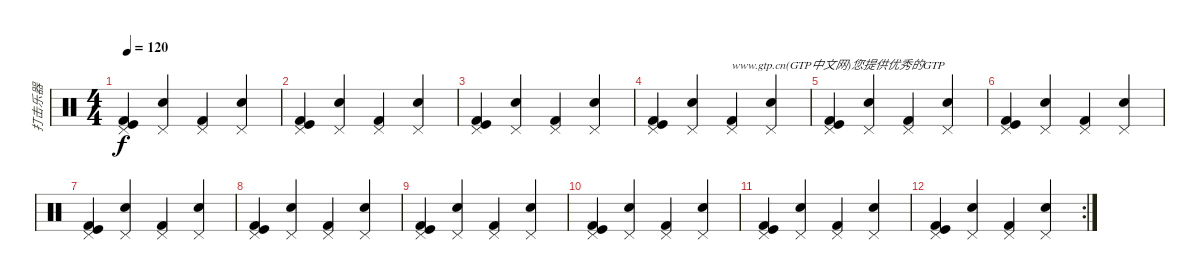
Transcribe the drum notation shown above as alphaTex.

\track ("打击乐器" "打击乐器") {instrument percussion}
\staff {score}
\articulation defaults
\ts (4 4)
\tempo 120
\clef neutral
\ks c
("Kick (hit) 2" "Kick (hit)" "Pedal Hi-Hat (hit)").4{dy f} ("Pedal Hi-Hat (hit)" "Electric Snare (hit)").4 ("Kick (hit) 2" "Pedal Hi-Hat (hit)").4 ("Pedal Hi-Hat (hit)" "Electric Snare (hit)").4 |
("Kick (hit) 2" "Kick (hit)" "Pedal Hi-Hat (hit)").4 ("Pedal Hi-Hat (hit)" "Electric Snare (hit)").4 ("Kick (hit) 2" "Pedal Hi-Hat (hit)").4 ("Pedal Hi-Hat (hit)" "Electric Snare (hit)").4 |
("Kick (hit) 2" "Kick (hit)" "Pedal Hi-Hat (hit)").4 ("Pedal Hi-Hat (hit)" "Electric Snare (hit)").4 ("Kick (hit) 2" "Pedal Hi-Hat (hit)").4 ("Pedal Hi-Hat (hit)" "Electric Snare (hit)").4 |
("Kick (hit) 2" "Kick (hit)" "Pedal Hi-Hat (hit)").4 ("Pedal Hi-Hat (hit)" "Electric Snare (hit)").4 ("Kick (hit) 2" "Pedal Hi-Hat (hit)").4{txt "www.gtp.cn(GTP中文网)您提供优秀的GTP"} ("Pedal Hi-Hat (hit)" "Electric Snare (hit)").4 |
("Kick (hit) 2" "Kick (hit)" "Pedal Hi-Hat (hit)").4 ("Pedal Hi-Hat (hit)" "Electric Snare (hit)").4 ("Kick (hit) 2" "Pedal Hi-Hat (hit)").4 ("Pedal Hi-Hat (hit)" "Electric Snare (hit)").4 |
("Kick (hit) 2" "Kick (hit)" "Pedal Hi-Hat (hit)").4 ("Pedal Hi-Hat (hit)" "Electric Snare (hit)").4 ("Kick (hit) 2" "Pedal Hi-Hat (hit)").4 ("Pedal Hi-Hat (hit)" "Electric Snare (hit)").4 |
("Kick (hit) 2" "Kick (hit)" "Pedal Hi-Hat (hit)").4 ("Pedal Hi-Hat (hit)" "Electric Snare (hit)").4 ("Kick (hit) 2" "Pedal Hi-Hat (hit)").4 ("Pedal Hi-Hat (hit)" "Electric Snare (hit)").4 |
("Kick (hit) 2" "Kick (hit)" "Pedal Hi-Hat (hit)").4 ("Pedal Hi-Hat (hit)" "Electric Snare (hit)").4 ("Kick (hit) 2" "Pedal Hi-Hat (hit)").4 ("Pedal Hi-Hat (hit)" "Electric Snare (hit)").4 |
("Kick (hit) 2" "Kick (hit)" "Pedal Hi-Hat (hit)").4 ("Pedal Hi-Hat (hit)" "Electric Snare (hit)").4 ("Kick (hit) 2" "Pedal Hi-Hat (hit)").4 ("Pedal Hi-Hat (hit)" "Electric Snare (hit)").4 |
("Kick (hit) 2" "Kick (hit)" "Pedal Hi-Hat (hit)").4 ("Pedal Hi-Hat (hit)" "Electric Snare (hit)").4 ("Kick (hit) 2" "Pedal Hi-Hat (hit)").4 ("Pedal Hi-Hat (hit)" "Electric Snare (hit)").4 |
("Kick (hit) 2" "Kick (hit)" "Pedal Hi-Hat (hit)").4 ("Pedal Hi-Hat (hit)" "Electric Snare (hit)").4 ("Kick (hit) 2" "Pedal Hi-Hat (hit)").4 ("Pedal Hi-Hat (hit)" "Electric Snare (hit)").4 |
\rc 2
("Kick (hit) 2" "Kick (hit)" "Pedal Hi-Hat (hit)").4 ("Pedal Hi-Hat (hit)" "Electric Snare (hit)").4 ("Kick (hit) 2" "Pedal Hi-Hat (hit)").4 ("Pedal Hi-Hat (hit)" "Electric Snare (hit)").4
